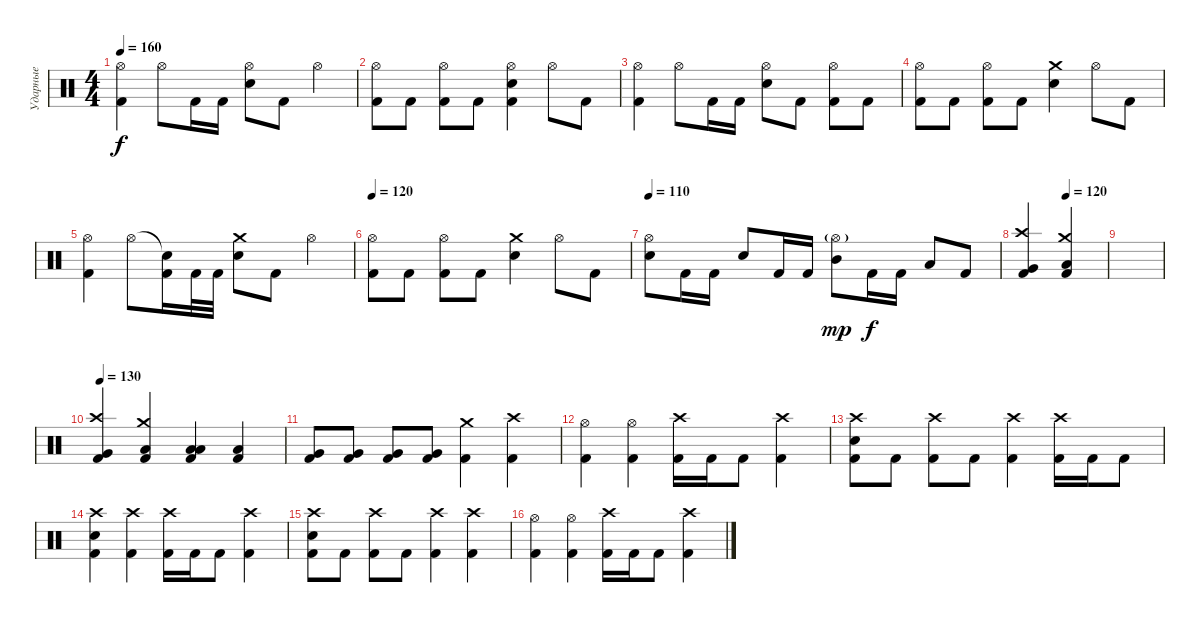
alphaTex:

\track ("Ударные" "Ударные") {instrument percussion}
\staff {score}
\articulation defaults
\ts (4 4)
\tempo 160
\clef neutral
\ks c
("Hi-Hat (open)" "Kick (hit) 2").4{dy f} "Hi-Hat (open)".8 "Kick (hit) 2".16 "Kick (hit) 2".16 ("Hi-Hat (open)" "Snare (hit) 2").8 "Kick (hit) 2".8 "Hi-Hat (open)".4 |
("Hi-Hat (open)" "Kick (hit) 2").8 "Kick (hit) 2".8 ("Hi-Hat (open)" "Kick (hit) 2").8 "Kick (hit) 2".8 ("Hi-Hat (open)" "Snare (hit) 2" "Kick (hit) 2").4 "Hi-Hat (open)".8 "Kick (hit) 2".8 |
("Hi-Hat (open)" "Kick (hit) 2").4 "Hi-Hat (open)".8 "Kick (hit) 2".16 "Kick (hit) 2".16 ("Hi-Hat (open)" "Snare (hit) 2").8 "Kick (hit) 2".8 ("Hi-Hat (open)" "Kick (hit) 2").8 "Kick (hit) 2".8 |
("Hi-Hat (open)" "Kick (hit) 2").8 "Kick (hit) 2".8 ("Hi-Hat (open)" "Kick (hit) 2").8 "Kick (hit) 2".8 ("Crash medium (hit)" "Snare (hit) 2").4 "Hi-Hat (open)".8 "Kick (hit) 2".8 |
("Hi-Hat (open)" "Kick (hit) 2").4 "Hi-Hat (open)".8 ("Snare (hit)"{t} "Kick (hit) 2").16 "Kick (hit) 2".32 "Kick (hit) 2".32 ("Crash medium (hit)" "Snare (hit) 2").8 "Kick (hit) 2".8 "Hi-Hat (open)".4 |
\tempo 120
("Hi-Hat (open)" "Kick (hit) 2").8 "Kick (hit) 2".8 ("Hi-Hat (open)" "Kick (hit) 2").8 "Kick (hit) 2".8 ("Crash medium (hit)" "Snare (hit) 2").4 "Hi-Hat (open)".8 "Kick (hit) 2".8 |
\tempo 110
("Hi-Hat (open)" "Snare (hit) 2").8 "Kick (hit) 2".16 "Kick (hit) 2".16 "Snare (hit) 2".8 "Kick (hit) 2".16 "Kick (hit) 2".16 ("Hi-Hat (open)"{g} "Mid Tom (hit)").8{dy mp} "Kick (hit) 2".16{dy f} "Kick (hit) 2".16 "Low Tom (hit)".8 "Kick (hit) 2".8 |
\tempo (120 0.5)
("Crash high (hit)" "Very Low Tom (hit)" "Kick (hit) 2").4 ("Crash medium (hit)" "Low Tom (hit)" "Kick (hit) 2").4 |
|
\tempo 130
("Crash high (hit)" "Very Low Tom (hit)" "Kick (hit) 2").4 ("Crash medium (hit)" "Low Tom (hit)" "Kick (hit) 2").4 ("Low Tom (hit)" "Low Floor Tom (hit)" "Kick (hit) 2").4 ("Low Floor Tom (hit)" "Kick (hit) 2").4 |
("Very Low Tom (hit)" "Kick (hit) 2").8 ("Very Low Tom (hit)" "Kick (hit) 2").8 ("Very Low Tom (hit)" "Kick (hit) 2").8 ("Very Low Tom (hit)" "Kick (hit) 2").8 ("Crash medium (hit)" "Kick (hit) 2").4 ("Crash high (hit)" "Kick (hit) 2").4 |
("Hi-Hat (open)" "Kick (hit) 2").4 ("Hi-Hat (open)" "Kick (hit) 2").4 ("Crash high (hit)" "Kick (hit) 2").16 "Kick (hit) 2".16 "Kick (hit) 2".8 ("Crash high (hit)" "Kick (hit) 2").4 |
("Crash high (hit)" "Snare (hit) 2" "Kick (hit) 2").8 "Kick (hit) 2".8 ("Crash high (hit)" "Kick (hit) 2").8 "Kick (hit) 2".8 ("Crash high (hit)" "Kick (hit) 2").4 ("Crash high (hit)" "Kick (hit) 2").16 "Kick (hit) 2".16 "Kick (hit) 2".8 |
("Crash high (hit)" "Snare (hit) 2" "Kick (hit) 2").4 ("Crash high (hit)" "Kick (hit) 2").4 ("Crash high (hit)" "Kick (hit) 2").16 "Kick (hit) 2".16 "Kick (hit) 2".8 ("Crash high (hit)" "Kick (hit) 2").4 |
("Crash high (hit)" "Snare (hit) 2" "Kick (hit) 2").8 "Kick (hit) 2".8 ("Crash high (hit)" "Kick (hit) 2").8 "Kick (hit) 2".8 ("Crash high (hit)" "Kick (hit) 2").4 ("Crash high (hit)" "Kick (hit) 2").4 |
("Hi-Hat (open)" "Kick (hit) 2").4 ("Hi-Hat (open)" "Kick (hit) 2").4 ("Crash high (hit)" "Kick (hit) 2").16 "Kick (hit) 2".16 "Kick (hit) 2".8 ("Crash high (hit)" "Kick (hit) 2").4
